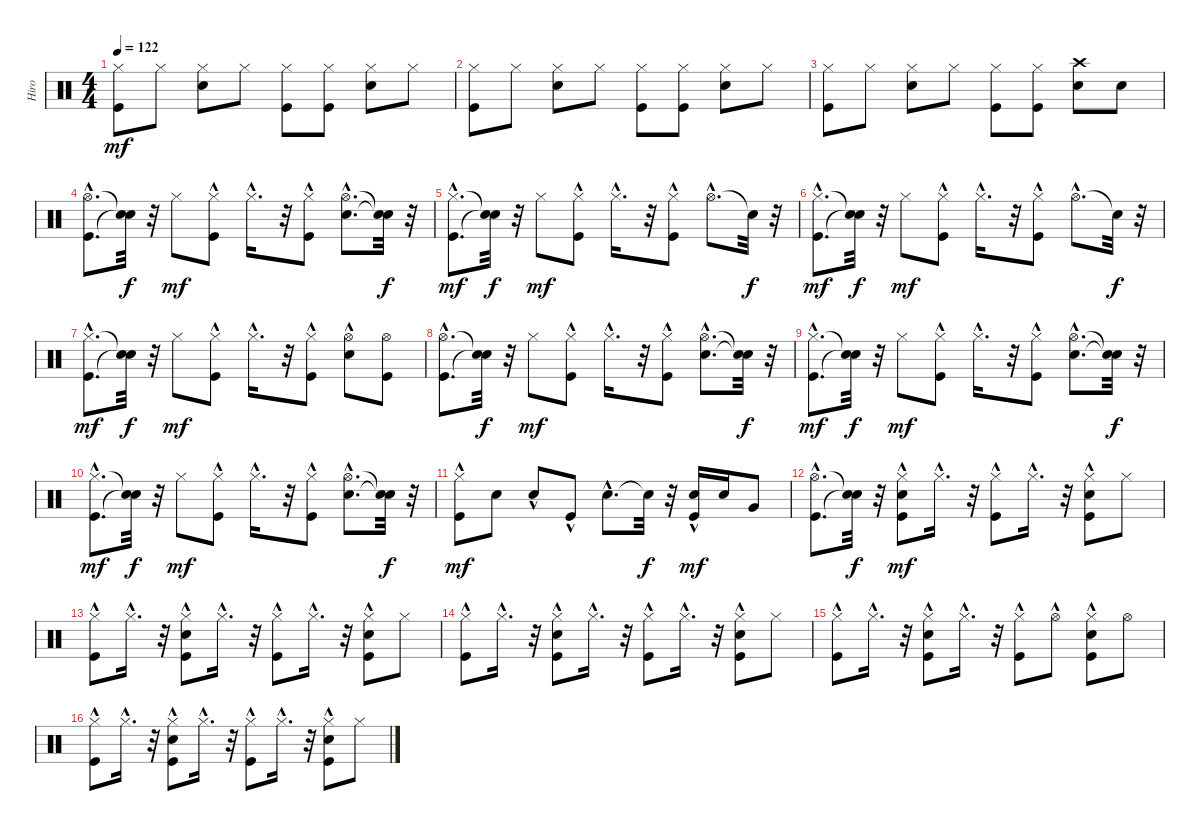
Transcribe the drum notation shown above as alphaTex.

\track ("Hiro" "Hiro") {instrument percussion}
\staff {score}
\articulation defaults
\ts (4 4)
\tempo 122
\clef neutral
\ks c
("Hi-Hat (closed)" "Kick (hit)").8{dy mf} "Hi-Hat (closed)".8 ("Electric Snare (hit)" "Hi-Hat (closed)").8 "Hi-Hat (closed)".8 ("Hi-Hat (closed)" "Kick (hit)").8 ("Hi-Hat (closed)" "Kick (hit)").8 ("Electric Snare (hit)" "Hi-Hat (closed)").8 "Hi-Hat (closed)".8 |
("Hi-Hat (closed)" "Kick (hit)").8 "Hi-Hat (closed)".8 ("Electric Snare (hit)" "Hi-Hat (closed)").8 "Hi-Hat (closed)".8 ("Hi-Hat (closed)" "Kick (hit)").8 ("Hi-Hat (closed)" "Kick (hit)").8 ("Electric Snare (hit)" "Hi-Hat (closed)").8 "Hi-Hat (closed)".8 |
("Hi-Hat (closed)" "Kick (hit)").8 "Hi-Hat (closed)".8 ("Electric Snare (hit)" "Hi-Hat (closed)").8 "Hi-Hat (closed)".8 ("Hi-Hat (closed)" "Kick (hit)").8 ("Hi-Hat (closed)" "Kick (hit)").8 ("Electric Snare (hit)" "Crash high (hit)").8 "Electric Snare (hit)".8 |
("Hi-Hat (open)"{hac} "Kick (hit)"{hac}).8{d} ("Snare (hit)"{t} "Snare (hit)"{t}).32{dy f} r.32 "Hi-Hat (closed)".8{dy mf} ("Hi-Hat (closed)"{hac} "Kick (hit)"{hac}).8 "Hi-Hat (closed)"{hac}.16{d} r.32 ("Hi-Hat (closed)"{hac} "Kick (hit)"{hac}).8 ("Electric Snare (hit)"{hac} "Hi-Hat (open)"{hac}).8{d} ("Snare (hit)"{t} "Snare (hit)"{t}).32{dy f} r.32 |
("Kick (hit)"{hac} "Hi-Hat (closed)"{hac}).8{d dy mf} ("Snare (hit)"{t} "Snare (hit)"{t}).32{dy f} r.32 "Hi-Hat (closed)".8{dy mf} ("Kick (hit)"{hac} "Hi-Hat (closed)"{hac}).8 "Hi-Hat (closed)"{hac}.16{d} r.32 ("Kick (hit)"{hac} "Hi-Hat (closed)"{hac}).8 "Hi-Hat (open)"{hac}.8{d} "Snare (hit)"{t}.32{dy f} r.32 |
("Kick (hit)"{hac} "Hi-Hat (closed)"{hac}).8{d dy mf} ("Snare (hit)"{t} "Snare (hit)"{t}).32{dy f} r.32 "Hi-Hat (closed)".8{dy mf} ("Kick (hit)"{hac} "Hi-Hat (closed)"{hac}).8 "Hi-Hat (closed)"{hac}.16{d} r.32 ("Kick (hit)"{hac} "Hi-Hat (closed)"{hac}).8 "Hi-Hat (open)"{hac}.8{d} "Snare (hit)"{t}.32{dy f} r.32 |
("Hi-Hat (closed)"{hac} "Kick (hit)"{hac}).8{d dy mf} ("Snare (hit)"{t} "Snare (hit)"{t}).32{dy f} r.32 "Hi-Hat (closed)".8{dy mf} ("Hi-Hat (closed)"{hac} "Kick (hit)"{hac}).8 "Hi-Hat (closed)"{hac}.16{d} r.32 ("Hi-Hat (closed)"{hac} "Kick (hit)"{hac}).8 ("Electric Snare (hit)"{hac} "Hi-Hat (open)").8 ("Kick (hit)" "Hi-Hat (open)").8 |
("Kick (hit)"{hac} "Hi-Hat (open)"{hac}).8{d} ("Snare (hit)"{t} "Snare (hit)"{t}).32{dy f} r.32 "Hi-Hat (closed)".8{dy mf} ("Hi-Hat (closed)"{hac} "Kick (hit)"{hac}).8 "Hi-Hat (closed)"{hac}.16{d} r.32 ("Hi-Hat (closed)"{hac} "Kick (hit)"{hac}).8 ("Electric Snare (hit)"{hac} "Hi-Hat (open)"{hac}).8{d} ("Snare (hit)"{t} "Snare (hit)"{t}).32{dy f} r.32 |
("Kick (hit)"{hac} "Hi-Hat (closed)"{hac}).8{d dy mf} ("Snare (hit)"{t} "Snare (hit)"{t}).32{dy f} r.32 "Hi-Hat (closed)".8{dy mf} ("Hi-Hat (closed)"{hac} "Kick (hit)"{hac}).8 "Hi-Hat (closed)"{hac}.16{d} r.32 ("Hi-Hat (closed)"{hac} "Kick (hit)"{hac}).8 ("Electric Snare (hit)"{hac} "Hi-Hat (open)"{hac}).8{d} ("Snare (hit)"{t} "Snare (hit)"{t}).32{dy f} r.32 |
("Kick (hit)"{hac} "Hi-Hat (closed)"{hac}).8{d dy mf} ("Snare (hit)"{t} "Snare (hit)"{t}).32{dy f} r.32 "Hi-Hat (closed)".8{dy mf} ("Hi-Hat (closed)"{hac} "Kick (hit)"{hac}).8 "Hi-Hat (closed)"{hac}.16{d} r.32 ("Hi-Hat (closed)"{hac} "Kick (hit)"{hac}).8 ("Electric Snare (hit)"{hac} "Hi-Hat (open)"{hac}).8{d} ("Snare (hit)"{t} "Snare (hit)"{t}).32{dy f} r.32 |
("Hi-Hat (closed)"{hac} "Kick (hit)"{hac}).8{dy mf} "Electric Snare (hit)".8 "Electric Snare (hit)"{hac}.8 "Kick (hit)"{hac}.8 "Electric Snare (hit)"{hac}.8{d} "Snare (hit)"{t}.32{dy f} r.32 ("Kick (hit)"{hac} "Electric Snare (hit)").16{dy mf} "Electric Snare (hit)".16 "Very Low Tom (hit)".8 |
("Hi-Hat (open)"{hac} "Kick (hit)"{hac}).8{d} ("Snare (hit)"{t} "Snare (hit)"{t}).32{dy f} r.32 ("Electric Snare (hit)"{hac} "Hi-Hat (closed)" "Kick (hit)"{hac}).8{dy mf} "Hi-Hat (closed)"{hac}.16{d} r.32 ("Hi-Hat (closed)"{hac} "Kick (hit)"{hac}).8 "Hi-Hat (closed)"{hac}.16{d} r.32 ("Electric Snare (hit)"{hac} "Hi-Hat (closed)"{hac} "Kick (hit)"{hac}).8 "Hi-Hat (closed)".8 |
("Hi-Hat (closed)" "Kick (hit)"{hac}).8 "Hi-Hat (closed)"{hac}.16{d} r.32 ("Electric Snare (hit)"{hac} "Hi-Hat (closed)"{hac} "Kick (hit)"{hac}).8 "Hi-Hat (closed)"{hac}.16{d} r.32 ("Hi-Hat (closed)"{hac} "Kick (hit)"{hac}).8 "Hi-Hat (closed)"{hac}.16{d} r.32 ("Electric Snare (hit)"{hac} "Hi-Hat (closed)"{hac} "Kick (hit)"{hac}).8 "Hi-Hat (closed)".8 |
("Hi-Hat (closed)" "Kick (hit)"{hac}).8 "Hi-Hat (closed)"{hac}.16{d} r.32 ("Electric Snare (hit)"{hac} "Hi-Hat (closed)"{hac} "Kick (hit)"{hac}).8 "Hi-Hat (closed)"{hac}.16{d} r.32 ("Hi-Hat (closed)"{hac} "Kick (hit)"{hac}).8 "Hi-Hat (closed)"{hac}.16{d} r.32 ("Electric Snare (hit)"{hac} "Hi-Hat (closed)"{hac} "Kick (hit)"{hac}).8 "Hi-Hat (closed)".8 |
("Hi-Hat (closed)" "Kick (hit)"{hac}).8 "Hi-Hat (closed)"{hac}.16{d} r.32 ("Electric Snare (hit)"{hac} "Hi-Hat (closed)"{hac} "Kick (hit)"{hac}).8 "Hi-Hat (closed)"{hac}.16{d} r.32 ("Hi-Hat (closed)"{hac} "Kick (hit)"{hac}).8 "Hi-Hat (open)"{hac}.8 ("Electric Snare (hit)"{hac} "Hi-Hat (closed)"{hac} "Kick (hit)"{hac}).8 "Hi-Hat (open)".8 |
("Hi-Hat (closed)" "Kick (hit)"{hac}).8 "Hi-Hat (closed)"{hac}.16{d} r.32 ("Electric Snare (hit)"{hac} "Hi-Hat (closed)"{hac} "Kick (hit)"{hac}).8 "Hi-Hat (closed)"{hac}.16{d} r.32 ("Hi-Hat (closed)"{hac} "Kick (hit)"{hac}).8 "Hi-Hat (closed)"{hac}.16{d} r.32 ("Electric Snare (hit)"{hac} "Hi-Hat (closed)"{hac} "Kick (hit)"{hac}).8 "Hi-Hat (closed)".8
